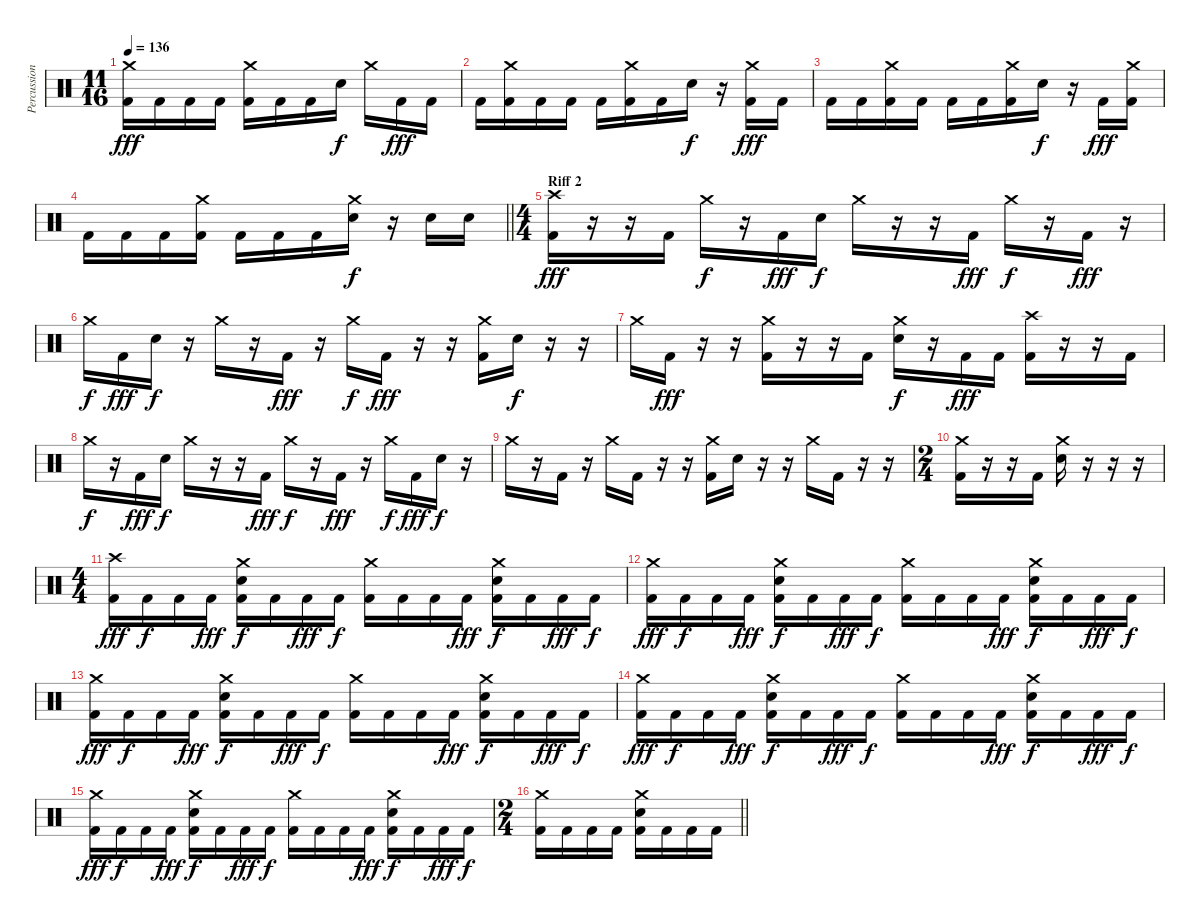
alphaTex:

\track ("Percussion" "Percussion") {instrument percussion}
\staff {score}
\articulation defaults
\ts (11 16)
\tempo 136
\clef neutral
\ks c
("Crash medium (hit)" "Kick (hit) 2").16{dy fff} "Kick (hit) 2".16 "Kick (hit) 2".16 "Kick (hit) 2".16 ("Crash medium (hit)" "Kick (hit) 2").16 "Kick (hit) 2".16 "Kick (hit) 2".16 "Electric Snare (hit)".16{dy f} "Crash medium (hit)".16 "Kick (hit) 2".16{dy fff} "Kick (hit) 2".16 |
"Kick (hit) 2".16 ("Crash medium (hit)" "Kick (hit) 2").16 "Kick (hit) 2".16 "Kick (hit) 2".16 "Kick (hit) 2".16 ("Crash medium (hit)" "Kick (hit) 2").16 "Kick (hit) 2".16 "Electric Snare (hit)".16{dy f} r.16 ("Crash medium (hit)" "Kick (hit) 2").16{dy fff} "Kick (hit) 2".16 |
"Kick (hit) 2".16 "Kick (hit) 2".16 ("Crash medium (hit)" "Kick (hit) 2").16 "Kick (hit) 2".16 "Kick (hit) 2".16 "Kick (hit) 2".16 ("Crash medium (hit)" "Kick (hit) 2").16 "Electric Snare (hit)".16{dy f} r.16 "Kick (hit) 2".16{dy fff} ("Crash medium (hit)" "Kick (hit) 2").16 |
\barLineRight lightlight "Kick (hit) 2".16 "Kick (hit) 2".16 "Kick (hit) 2".16
("Crash medium (hit)" "Kick (hit) 2").16 "Kick (hit) 2".16 "Kick (hit) 2".16 "Kick (hit) 2".16 ("Crash medium (hit)" "Electric Snare (hit)").16{dy f} r.16 "Electric Snare (hit)".16 "Electric Snare (hit)".16 |
\ts (4 4)
\section ("" "Riff 2")
("Crash high (hit)" "Kick (hit) 2").16{dy fff} r.16 r.16 "Kick (hit) 2".16 "Crash medium (hit)".16{dy f} r.16 "Kick (hit) 2".16{dy fff} "Electric Snare (hit)".16{dy f} "Crash medium (hit)".16 r.16 r.16 "Kick (hit) 2".16{dy fff} "Crash medium (hit)".16{dy f} r.16 "Kick (hit) 2".16{dy fff} r.16 |
"Crash medium (hit)".16{dy f} "Kick (hit) 2".16{dy fff} "Electric Snare (hit)".16{dy f} r.16 "Crash medium (hit)".16 r.16 "Kick (hit) 2".16{dy fff} r.16 "Crash medium (hit)".16{dy f} "Kick (hit) 2".16{dy fff} r.16 r.16 ("Crash medium (hit)" "Kick (hit) 2").16 "Electric Snare (hit)".16{dy f} r.16 r.16 |
"Crash medium (hit)".16 "Kick (hit) 2".16{dy fff} r.16 r.16 ("Crash medium (hit)" "Kick (hit) 2").16 r.16 r.16 "Kick (hit) 2".16 ("Crash medium (hit)" "Electric Snare (hit)").16{dy f} r.16 "Kick (hit) 2".16{dy fff} "Kick (hit) 2".16 ("Crash high (hit)" "Kick (hit) 2").16 r.16 r.16 "Kick (hit) 2".16 |
"Crash medium (hit)".16{dy f} r.16 "Kick (hit) 2".16{dy fff} "Electric Snare (hit)".16{dy f} "Crash medium (hit)".16 r.16 r.16 "Kick (hit) 2".16{dy fff} "Crash medium (hit)".16{dy f} r.16 "Kick (hit) 2".16{dy fff} r.16 "Crash medium (hit)".16{dy f} "Kick (hit) 2".16{dy fff} "Electric Snare (hit)".16{dy f} r.16 |
"Crash medium (hit)".16 r.16 "Kick (hit) 2".16 r.16 "Crash medium (hit)".16 "Kick (hit) 2".16 r.16 r.16 ("Crash medium (hit)" "Kick (hit) 2").16 "Electric Snare (hit)".16 r.16 r.16 "Crash medium (hit)".16 "Kick (hit) 2".16 r.16 r.16 |
\ts (2 4)
("Crash medium (hit)" "Kick (hit) 2").16 r.16 r.16 "Kick (hit) 2".16 ("Crash medium (hit)" "Electric Snare (hit)").16 r.16 r.16 r.16 |
\ts (4 4)
("Crash high (hit)" "Kick (hit) 2").16{dy fff} "Kick (hit) 2".16{dy f} "Kick (hit) 2".16 "Kick (hit) 2".16{dy fff} ("Crash medium (hit)" "Electric Snare (hit)" "Kick (hit) 2").16{dy f} "Kick (hit) 2".16 "Kick (hit) 2".16{dy fff} "Kick (hit) 2".16{dy f} ("Crash medium (hit)" "Kick (hit) 2").16 "Kick (hit) 2".16 "Kick (hit) 2".16 "Kick (hit) 2".16{dy fff} ("Crash medium (hit)" "Electric Snare (hit)" "Kick (hit) 2").16{dy f} "Kick (hit) 2".16 "Kick (hit) 2".16{dy fff} "Kick (hit) 2".16{dy f} |
("Crash medium (hit)" "Kick (hit) 2").16{dy fff} "Kick (hit) 2".16{dy f} "Kick (hit) 2".16 "Kick (hit) 2".16{dy fff} ("Crash medium (hit)" "Electric Snare (hit)" "Kick (hit) 2").16{dy f} "Kick (hit) 2".16 "Kick (hit) 2".16{dy fff} "Kick (hit) 2".16{dy f} ("Crash medium (hit)" "Kick (hit) 2").16 "Kick (hit) 2".16 "Kick (hit) 2".16 "Kick (hit) 2".16{dy fff} ("Crash medium (hit)" "Electric Snare (hit)" "Kick (hit) 2").16{dy f} "Kick (hit) 2".16 "Kick (hit) 2".16{dy fff} "Kick (hit) 2".16{dy f} |
("Crash medium (hit)" "Kick (hit) 2").16{dy fff} "Kick (hit) 2".16{dy f} "Kick (hit) 2".16 "Kick (hit) 2".16{dy fff} ("Crash medium (hit)" "Electric Snare (hit)" "Kick (hit) 2").16{dy f} "Kick (hit) 2".16 "Kick (hit) 2".16{dy fff} "Kick (hit) 2".16{dy f} ("Crash medium (hit)" "Kick (hit) 2").16 "Kick (hit) 2".16 "Kick (hit) 2".16 "Kick (hit) 2".16{dy fff} ("Crash medium (hit)" "Electric Snare (hit)" "Kick (hit) 2").16{dy f} "Kick (hit) 2".16 "Kick (hit) 2".16{dy fff} "Kick (hit) 2".16{dy f} |
("Crash medium (hit)" "Kick (hit) 2").16{dy fff} "Kick (hit) 2".16{dy f} "Kick (hit) 2".16 "Kick (hit) 2".16{dy fff} ("Crash medium (hit)" "Electric Snare (hit)" "Kick (hit) 2").16{dy f} "Kick (hit) 2".16 "Kick (hit) 2".16{dy fff} "Kick (hit) 2".16{dy f} ("Crash medium (hit)" "Kick (hit) 2").16 "Kick (hit) 2".16 "Kick (hit) 2".16 "Kick (hit) 2".16{dy fff} ("Crash medium (hit)" "Electric Snare (hit)" "Kick (hit) 2").16{dy f} "Kick (hit) 2".16 "Kick (hit) 2".16{dy fff} "Kick (hit) 2".16{dy f} |
("Crash medium (hit)" "Kick (hit) 2").16{dy fff} "Kick (hit) 2".16{dy f} "Kick (hit) 2".16 "Kick (hit) 2".16{dy fff} ("Crash medium (hit)" "Electric Snare (hit)" "Kick (hit) 2").16{dy f} "Kick (hit) 2".16 "Kick (hit) 2".16{dy fff} "Kick (hit) 2".16{dy f} ("Crash medium (hit)" "Kick (hit) 2").16 "Kick (hit) 2".16 "Kick (hit) 2".16 "Kick (hit) 2".16{dy fff} ("Crash medium (hit)" "Electric Snare (hit)" "Kick (hit) 2").16{dy f} "Kick (hit) 2".16 "Kick (hit) 2".16{dy fff} "Kick (hit) 2".16{dy f} |
\ts (2 4)
\barLineRight lightlight
("Crash medium (hit)" "Kick (hit) 2").16 "Kick (hit) 2".16 "Kick (hit) 2".16 "Kick (hit) 2".16 ("Crash medium (hit)" "Electric Snare (hit)" "Kick (hit) 2").16 "Kick (hit) 2".16 "Kick (hit) 2".16 "Kick (hit) 2".16
